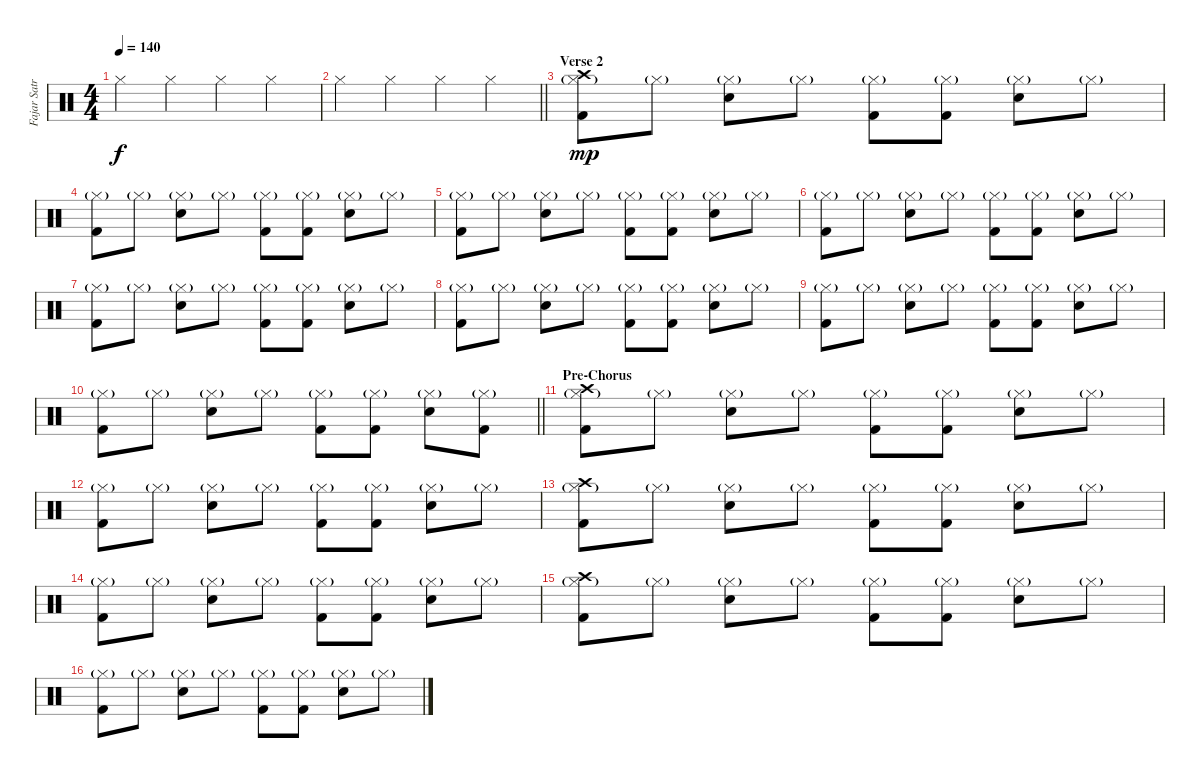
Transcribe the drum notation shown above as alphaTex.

\track ("Fajar Satriana" "Fajar Satr") {instrument percussion}
\staff {score}
\articulation defaults
\ts (4 4)
\tempo 140
\clef neutral
\ks c "Hi-Hat (closed)".4{dy f} "Hi-Hat (closed)".4 "Hi-Hat (closed)".4 "Hi-Hat (closed)".4
|
\barLineRight lightlight "Hi-Hat (closed)".4 "Hi-Hat (closed)".4 "Hi-Hat (closed)".4 "Hi-Hat (closed)".4
|
\section ("" "Verse 2")
("Crash high (hit)" "Hi-Hat (closed)"{g} "Kick (hit) 2").8{dy mp} "Hi-Hat (closed)"{g}.8 ("Hi-Hat (closed)"{g} "Electric Snare (hit)").8 "Hi-Hat (closed)"{g}.8 ("Hi-Hat (closed)"{g} "Kick (hit) 2").8 ("Hi-Hat (closed)"{g} "Kick (hit) 2").8 ("Hi-Hat (closed)"{g} "Electric Snare (hit)").8 "Hi-Hat (closed)"{g}.8 |
("Hi-Hat (closed)"{g} "Kick (hit) 2").8 "Hi-Hat (closed)"{g}.8 ("Hi-Hat (closed)"{g} "Electric Snare (hit)").8 "Hi-Hat (closed)"{g}.8 ("Hi-Hat (closed)"{g} "Kick (hit) 2").8 ("Hi-Hat (closed)"{g} "Kick (hit) 2").8 ("Hi-Hat (closed)"{g} "Electric Snare (hit)").8 "Hi-Hat (closed)"{g}.8 |
("Hi-Hat (closed)"{g} "Kick (hit) 2").8 "Hi-Hat (closed)"{g}.8 ("Hi-Hat (closed)"{g} "Electric Snare (hit)").8 "Hi-Hat (closed)"{g}.8 ("Hi-Hat (closed)"{g} "Kick (hit) 2").8 ("Hi-Hat (closed)"{g} "Kick (hit) 2").8 ("Hi-Hat (closed)"{g} "Electric Snare (hit)").8 "Hi-Hat (closed)"{g}.8 |
("Hi-Hat (closed)"{g} "Kick (hit) 2").8 "Hi-Hat (closed)"{g}.8 ("Hi-Hat (closed)"{g} "Electric Snare (hit)").8 "Hi-Hat (closed)"{g}.8 ("Hi-Hat (closed)"{g} "Kick (hit) 2").8 ("Hi-Hat (closed)"{g} "Kick (hit) 2").8 ("Hi-Hat (closed)"{g} "Electric Snare (hit)").8 "Hi-Hat (closed)"{g}.8 |
("Hi-Hat (closed)"{g} "Kick (hit) 2").8 "Hi-Hat (closed)"{g}.8 ("Hi-Hat (closed)"{g} "Electric Snare (hit)").8 "Hi-Hat (closed)"{g}.8 ("Hi-Hat (closed)"{g} "Kick (hit) 2").8 ("Hi-Hat (closed)"{g} "Kick (hit) 2").8 ("Hi-Hat (closed)"{g} "Electric Snare (hit)").8 "Hi-Hat (closed)"{g}.8 |
("Hi-Hat (closed)"{g} "Kick (hit) 2").8 "Hi-Hat (closed)"{g}.8 ("Hi-Hat (closed)"{g} "Electric Snare (hit)").8 "Hi-Hat (closed)"{g}.8 ("Hi-Hat (closed)"{g} "Kick (hit) 2").8 ("Hi-Hat (closed)"{g} "Kick (hit) 2").8 ("Hi-Hat (closed)"{g} "Electric Snare (hit)").8 "Hi-Hat (closed)"{g}.8 |
("Hi-Hat (closed)"{g} "Kick (hit) 2").8 "Hi-Hat (closed)"{g}.8 ("Hi-Hat (closed)"{g} "Electric Snare (hit)").8 "Hi-Hat (closed)"{g}.8 ("Hi-Hat (closed)"{g} "Kick (hit) 2").8 ("Hi-Hat (closed)"{g} "Kick (hit) 2").8 ("Hi-Hat (closed)"{g} "Electric Snare (hit)").8 "Hi-Hat (closed)"{g}.8 |
\barLineRight lightlight
("Hi-Hat (closed)"{g} "Kick (hit) 2").8 "Hi-Hat (closed)"{g}.8 ("Hi-Hat (closed)"{g} "Electric Snare (hit)").8 "Hi-Hat (closed)"{g}.8 ("Hi-Hat (closed)"{g} "Kick (hit) 2").8 ("Hi-Hat (closed)"{g} "Kick (hit) 2").8 ("Hi-Hat (closed)"{g} "Electric Snare (hit)").8 ("Hi-Hat (closed)"{g} "Kick (hit) 2").8 |
\section ("" "Pre-Chorus")
("Crash high (hit)" "Hi-Hat (closed)"{g} "Kick (hit) 2").8 "Hi-Hat (closed)"{g}.8 ("Hi-Hat (closed)"{g} "Electric Snare (hit)").8 "Hi-Hat (closed)"{g}.8 ("Hi-Hat (closed)"{g} "Kick (hit) 2").8 ("Hi-Hat (closed)"{g} "Kick (hit) 2").8 ("Hi-Hat (closed)"{g} "Electric Snare (hit)").8 "Hi-Hat (closed)"{g}.8 |
("Hi-Hat (closed)"{g} "Kick (hit) 2").8 "Hi-Hat (closed)"{g}.8 ("Hi-Hat (closed)"{g} "Electric Snare (hit)").8 "Hi-Hat (closed)"{g}.8 ("Hi-Hat (closed)"{g} "Kick (hit) 2").8 ("Hi-Hat (closed)"{g} "Kick (hit) 2").8 ("Hi-Hat (closed)"{g} "Electric Snare (hit)").8 "Hi-Hat (closed)"{g}.8 |
("Crash high (hit)" "Hi-Hat (closed)"{g} "Kick (hit) 2").8 "Hi-Hat (closed)"{g}.8 ("Hi-Hat (closed)"{g} "Electric Snare (hit)").8 "Hi-Hat (closed)"{g}.8 ("Hi-Hat (closed)"{g} "Kick (hit) 2").8 ("Hi-Hat (closed)"{g} "Kick (hit) 2").8 ("Hi-Hat (closed)"{g} "Electric Snare (hit)").8 "Hi-Hat (closed)"{g}.8 |
("Hi-Hat (closed)"{g} "Kick (hit) 2").8 "Hi-Hat (closed)"{g}.8 ("Hi-Hat (closed)"{g} "Electric Snare (hit)").8 "Hi-Hat (closed)"{g}.8 ("Hi-Hat (closed)"{g} "Kick (hit) 2").8 ("Hi-Hat (closed)"{g} "Kick (hit) 2").8 ("Hi-Hat (closed)"{g} "Electric Snare (hit)").8 "Hi-Hat (closed)"{g}.8 |
("Crash high (hit)" "Hi-Hat (closed)"{g} "Kick (hit) 2").8 "Hi-Hat (closed)"{g}.8 ("Hi-Hat (closed)"{g} "Electric Snare (hit)").8 "Hi-Hat (closed)"{g}.8 ("Hi-Hat (closed)"{g} "Kick (hit) 2").8 ("Hi-Hat (closed)"{g} "Kick (hit) 2").8 ("Hi-Hat (closed)"{g} "Electric Snare (hit)").8 "Hi-Hat (closed)"{g}.8 |
("Hi-Hat (closed)"{g} "Kick (hit) 2").8 "Hi-Hat (closed)"{g}.8 ("Hi-Hat (closed)"{g} "Electric Snare (hit)").8 "Hi-Hat (closed)"{g}.8 ("Hi-Hat (closed)"{g} "Kick (hit) 2").8 ("Hi-Hat (closed)"{g} "Kick (hit) 2").8 ("Hi-Hat (closed)"{g} "Electric Snare (hit)").8 "Hi-Hat (closed)"{g}.8
